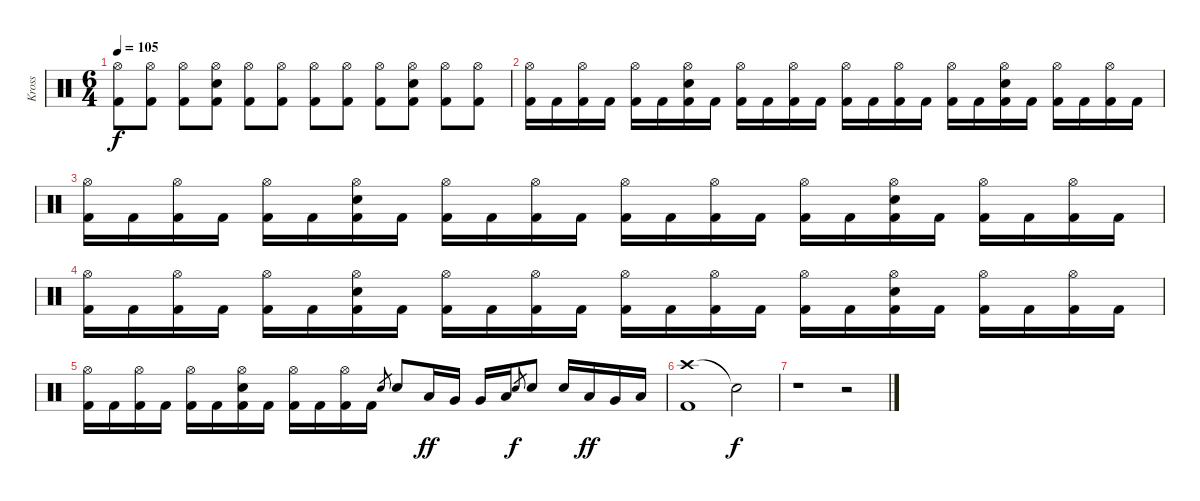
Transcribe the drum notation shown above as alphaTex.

\track ("Kross" "Kross") {instrument percussion}
\staff {score}
\articulation defaults
\ts (6 4)
\tempo 105
\clef neutral
\ks c
("Hi-Hat (open)" "Kick (hit) 2").8{dy f} ("Hi-Hat (open)" "Kick (hit) 2").8 ("Hi-Hat (open)" "Kick (hit) 2").8 ("Hi-Hat (open)" "Electric Snare (hit)" "Kick (hit) 2").8 ("Hi-Hat (open)" "Kick (hit) 2").8 ("Hi-Hat (open)" "Kick (hit) 2").8 ("Hi-Hat (open)" "Kick (hit) 2").8 ("Hi-Hat (open)" "Kick (hit) 2").8 ("Hi-Hat (open)" "Kick (hit) 2").8 ("Hi-Hat (open)" "Electric Snare (hit)" "Kick (hit) 2").8 ("Hi-Hat (open)" "Kick (hit) 2").8 ("Hi-Hat (open)" "Kick (hit) 2").8 |
("Hi-Hat (open)" "Kick (hit) 2").16 "Kick (hit) 2".16 ("Hi-Hat (open)" "Kick (hit) 2").16 "Kick (hit) 2".16 ("Hi-Hat (open)" "Kick (hit) 2").16 "Kick (hit) 2".16 ("Hi-Hat (open)" "Electric Snare (hit)" "Kick (hit) 2").16 "Kick (hit) 2".16 ("Hi-Hat (open)" "Kick (hit) 2").16 "Kick (hit) 2".16 ("Hi-Hat (open)" "Kick (hit) 2").16 "Kick (hit) 2".16 ("Hi-Hat (open)" "Kick (hit) 2").16 "Kick (hit) 2".16 ("Hi-Hat (open)" "Kick (hit) 2").16 "Kick (hit) 2".16 ("Hi-Hat (open)" "Kick (hit) 2").16 "Kick (hit) 2".16 ("Hi-Hat (open)" "Electric Snare (hit)" "Kick (hit) 2").16 "Kick (hit) 2".16 ("Hi-Hat (open)" "Kick (hit) 2").16 "Kick (hit) 2".16 ("Hi-Hat (open)" "Kick (hit) 2").16 "Kick (hit) 2".16 |
("Hi-Hat (open)" "Kick (hit) 2").16 "Kick (hit) 2".16 ("Hi-Hat (open)" "Kick (hit) 2").16 "Kick (hit) 2".16 ("Hi-Hat (open)" "Kick (hit) 2").16 "Kick (hit) 2".16 ("Hi-Hat (open)" "Electric Snare (hit)" "Kick (hit) 2").16 "Kick (hit) 2".16 ("Hi-Hat (open)" "Kick (hit) 2").16 "Kick (hit) 2".16 ("Hi-Hat (open)" "Kick (hit) 2").16 "Kick (hit) 2".16 ("Hi-Hat (open)" "Kick (hit) 2").16 "Kick (hit) 2".16 ("Hi-Hat (open)" "Kick (hit) 2").16 "Kick (hit) 2".16 ("Hi-Hat (open)" "Kick (hit) 2").16 "Kick (hit) 2".16 ("Hi-Hat (open)" "Electric Snare (hit)" "Kick (hit) 2").16 "Kick (hit) 2".16 ("Hi-Hat (open)" "Kick (hit) 2").16 "Kick (hit) 2".16 ("Hi-Hat (open)" "Kick (hit) 2").16 "Kick (hit) 2".16 |
("Hi-Hat (open)" "Kick (hit) 2").16 "Kick (hit) 2".16 ("Hi-Hat (open)" "Kick (hit) 2").16 "Kick (hit) 2".16 ("Hi-Hat (open)" "Kick (hit) 2").16 "Kick (hit) 2".16 ("Hi-Hat (open)" "Electric Snare (hit)" "Kick (hit) 2").16 "Kick (hit) 2".16 ("Hi-Hat (open)" "Kick (hit) 2").16 "Kick (hit) 2".16 ("Hi-Hat (open)" "Kick (hit) 2").16 "Kick (hit) 2".16 ("Hi-Hat (open)" "Kick (hit) 2").16 "Kick (hit) 2".16 ("Hi-Hat (open)" "Kick (hit) 2").16 "Kick (hit) 2".16 ("Hi-Hat (open)" "Kick (hit) 2").16 "Kick (hit) 2".16 ("Hi-Hat (open)" "Electric Snare (hit)" "Kick (hit) 2").16 "Kick (hit) 2".16 ("Hi-Hat (open)" "Kick (hit) 2").16 "Kick (hit) 2".16 ("Hi-Hat (open)" "Kick (hit) 2").16 "Kick (hit) 2".16 |
("Hi-Hat (open)" "Kick (hit) 2").16 "Kick (hit) 2".16 ("Hi-Hat (open)" "Kick (hit) 2").16 "Kick (hit) 2".16 ("Hi-Hat (open)" "Kick (hit) 2").16 "Kick (hit) 2".16 ("Hi-Hat (open)" "Electric Snare (hit)" "Kick (hit) 2").16 "Kick (hit) 2".16 ("Hi-Hat (open)" "Kick (hit) 2").16 "Kick (hit) 2".16 ("Hi-Hat (open)" "Kick (hit) 2").16 "Kick (hit) 2".16 "Electric Snare (hit)".8{gr} "Electric Snare (hit)".8 "Low Tom (hit)".16{dy ff} "Very Low Tom (hit)".16 "Very Low Tom (hit)".16 "Low Tom (hit)".16 "Electric Snare (hit)".8{gr dy f} "Electric Snare (hit)".8 "Electric Snare (hit)".16 "Low Tom (hit)".16{dy ff} "Very Low Tom (hit)".16 "Low Tom (hit)".16 |
("Crash high (hit)" "Kick (hit) 2").1 "Snare (hit)"{t}.2{dy f} |
r.1 r.2
